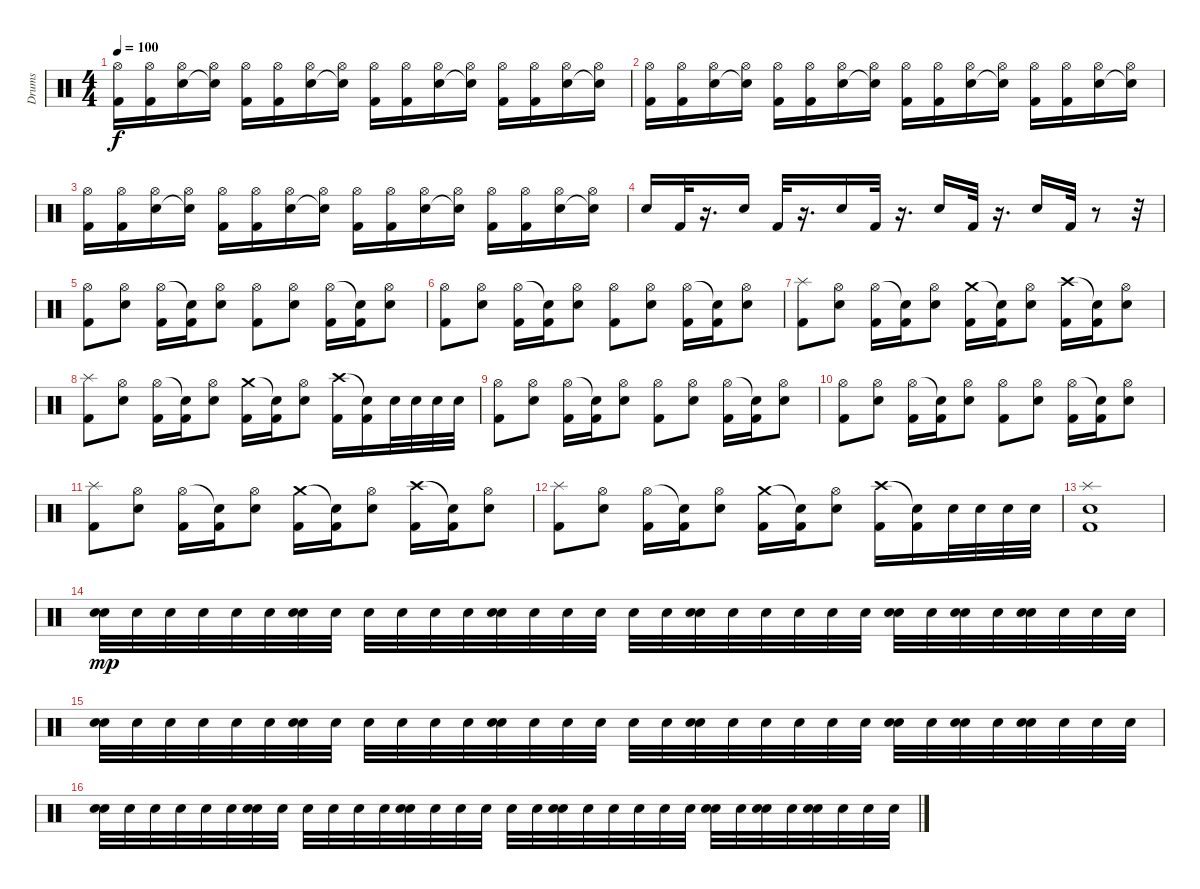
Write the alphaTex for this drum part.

\track ("Drums" "Drums") {instrument percussion}
\staff {score}
\articulation defaults
\ts (4 4)
\tempo 100
\clef neutral
\ks c
("Hi-Hat (open)" "Kick (hit) 2").16{dy f} ("Hi-Hat (open)" "Kick (hit) 2").16 ("Hi-Hat (open)" "Electric Snare (hit)").16 ("Hi-Hat (open)" "Snare (hit)"{t}).16 ("Hi-Hat (open)" "Kick (hit) 2").16 ("Hi-Hat (open)" "Kick (hit) 2").16 ("Hi-Hat (open)" "Electric Snare (hit)").16 ("Hi-Hat (open)" "Snare (hit)"{t}).16 ("Hi-Hat (open)" "Kick (hit) 2").16 ("Hi-Hat (open)" "Kick (hit) 2").16 ("Hi-Hat (open)" "Electric Snare (hit)").16 ("Hi-Hat (open)" "Snare (hit)"{t}).16 ("Hi-Hat (open)" "Kick (hit) 2").16 ("Hi-Hat (open)" "Kick (hit) 2").16 ("Hi-Hat (open)" "Electric Snare (hit)").16 ("Hi-Hat (open)" "Electric Snare (hit)"{t}).16 |
("Hi-Hat (open)" "Kick (hit) 2").16 ("Hi-Hat (open)" "Kick (hit) 2").16 ("Hi-Hat (open)" "Electric Snare (hit)").16 ("Hi-Hat (open)" "Snare (hit)"{t}).16 ("Hi-Hat (open)" "Kick (hit) 2").16 ("Hi-Hat (open)" "Kick (hit) 2").16 ("Hi-Hat (open)" "Electric Snare (hit)").16 ("Hi-Hat (open)" "Snare (hit)"{t}).16 ("Hi-Hat (open)" "Kick (hit) 2").16 ("Hi-Hat (open)" "Kick (hit) 2").16 ("Hi-Hat (open)" "Electric Snare (hit)").16 ("Hi-Hat (open)" "Snare (hit)"{t}).16 ("Hi-Hat (open)" "Kick (hit) 2").16 ("Hi-Hat (open)" "Kick (hit) 2").16 ("Hi-Hat (open)" "Electric Snare (hit)").16 ("Hi-Hat (open)" "Electric Snare (hit)"{t}).16 |
("Hi-Hat (open)" "Kick (hit) 2").16 ("Hi-Hat (open)" "Kick (hit) 2").16 ("Hi-Hat (open)" "Electric Snare (hit)").16 ("Hi-Hat (open)" "Snare (hit)"{t}).16 ("Hi-Hat (open)" "Kick (hit) 2").16 ("Hi-Hat (open)" "Kick (hit) 2").16 ("Hi-Hat (open)" "Electric Snare (hit)").16 ("Hi-Hat (open)" "Snare (hit)"{t}).16 ("Hi-Hat (open)" "Kick (hit) 2").16 ("Hi-Hat (open)" "Kick (hit) 2").16 ("Hi-Hat (open)" "Electric Snare (hit)").16 ("Hi-Hat (open)" "Snare (hit)"{t}).16 ("Hi-Hat (open)" "Kick (hit) 2").16 ("Hi-Hat (open)" "Kick (hit) 2").16 ("Hi-Hat (open)" "Electric Snare (hit)").16 ("Hi-Hat (open)" "Electric Snare (hit)"{t}).16 |
"Electric Snare (hit)".16 "Kick (hit) 2".32 r.16{d} "Electric Snare (hit)".16 "Kick (hit) 2".32 r.16{d} "Electric Snare (hit)".16 "Kick (hit) 2".32 r.16{d} "Electric Snare (hit)".16 "Kick (hit) 2".32 r.16{d} "Electric Snare (hit)".16 "Kick (hit) 2".32 r.8 r.32 |
("Hi-Hat (open)" "Kick (hit) 2").8 ("Hi-Hat (open)" "Electric Snare (hit)").8 ("Hi-Hat (open)" "Kick (hit) 2").16 ("Snare (hit)"{t} "Kick (hit) 2").16 ("Hi-Hat (open)" "Electric Snare (hit)").8 ("Hi-Hat (open)" "Kick (hit) 2").8 ("Hi-Hat (open)" "Electric Snare (hit)").8 ("Hi-Hat (open)" "Kick (hit) 2").16 ("Snare (hit)"{t} "Kick (hit) 2").16 ("Hi-Hat (open)" "Electric Snare (hit)").8 |
("Hi-Hat (open)" "Kick (hit) 2").8 ("Hi-Hat (open)" "Electric Snare (hit)").8 ("Hi-Hat (open)" "Kick (hit) 2").16 ("Snare (hit)"{t} "Kick (hit) 2").16 ("Hi-Hat (open)" "Electric Snare (hit)").8 ("Hi-Hat (open)" "Kick (hit) 2").8 ("Hi-Hat (open)" "Electric Snare (hit)").8 ("Hi-Hat (open)" "Kick (hit) 2").16 ("Snare (hit)"{t} "Kick (hit) 2").16 ("Hi-Hat (open)" "Electric Snare (hit)").8 |
("Splash (hit)" "Kick (hit) 2").8 ("Hi-Hat (open)" "Electric Snare (hit)").8 ("Hi-Hat (open)" "Kick (hit) 2").16 ("Snare (hit)"{t} "Kick (hit) 2").16 ("Hi-Hat (open)" "Electric Snare (hit)").8 ("Crash medium (hit)" "Kick (hit) 2").16 ("Snare (hit)"{t} "Kick (hit) 2").16 ("Hi-Hat (open)" "Electric Snare (hit)").8 ("Crash high (hit)" "Kick (hit) 2").16 ("Snare (hit)"{t} "Kick (hit) 2").16 ("Hi-Hat (open)" "Electric Snare (hit)").8 |
("Splash (hit)" "Kick (hit) 2").8 ("Hi-Hat (open)" "Electric Snare (hit)").8 ("Hi-Hat (open)" "Kick (hit) 2").16 ("Snare (hit)"{t} "Kick (hit) 2").16 ("Hi-Hat (open)" "Electric Snare (hit)").8 ("Crash medium (hit)" "Kick (hit) 2").16 ("Snare (hit)"{t} "Kick (hit) 2").16 ("Hi-Hat (open)" "Electric Snare (hit)").8 ("Crash high (hit)" "Kick (hit) 2").16 ("Snare (hit)"{t} "Kick (hit) 2").16 "Electric Snare (hit)".32 "Electric Snare (hit)".32 "Electric Snare (hit)".32 "Electric Snare (hit)".32 |
("Hi-Hat (open)" "Kick (hit) 2").8 ("Hi-Hat (open)" "Electric Snare (hit)").8 ("Hi-Hat (open)" "Kick (hit) 2").16 ("Snare (hit)"{t} "Kick (hit) 2").16 ("Hi-Hat (open)" "Electric Snare (hit)").8 ("Hi-Hat (open)" "Kick (hit) 2").8 ("Hi-Hat (open)" "Electric Snare (hit)").8 ("Hi-Hat (open)" "Kick (hit) 2").16 ("Snare (hit)"{t} "Kick (hit) 2").16 ("Hi-Hat (open)" "Electric Snare (hit)").8 |
("Hi-Hat (open)" "Kick (hit) 2").8 ("Hi-Hat (open)" "Electric Snare (hit)").8 ("Hi-Hat (open)" "Kick (hit) 2").16 ("Snare (hit)"{t} "Kick (hit) 2").16 ("Hi-Hat (open)" "Electric Snare (hit)").8 ("Hi-Hat (open)" "Kick (hit) 2").8 ("Hi-Hat (open)" "Electric Snare (hit)").8 ("Hi-Hat (open)" "Kick (hit) 2").16 ("Snare (hit)"{t} "Kick (hit) 2").16 ("Hi-Hat (open)" "Electric Snare (hit)").8 |
("Splash (hit)" "Kick (hit) 2").8 ("Hi-Hat (open)" "Electric Snare (hit)").8 ("Hi-Hat (open)" "Kick (hit) 2").16 ("Snare (hit)"{t} "Kick (hit) 2").16 ("Hi-Hat (open)" "Electric Snare (hit)").8 ("Crash medium (hit)" "Kick (hit) 2").16 ("Snare (hit)"{t} "Kick (hit) 2").16 ("Hi-Hat (open)" "Electric Snare (hit)").8 ("Crash high (hit)" "Kick (hit) 2").16 ("Snare (hit)"{t} "Kick (hit) 2").16 ("Hi-Hat (open)" "Electric Snare (hit)").8 |
("Splash (hit)" "Kick (hit) 2").8 ("Hi-Hat (open)" "Electric Snare (hit)").8 ("Hi-Hat (open)" "Kick (hit) 2").16 ("Snare (hit)"{t} "Kick (hit) 2").16 ("Hi-Hat (open)" "Electric Snare (hit)").8 ("Crash medium (hit)" "Kick (hit) 2").16 ("Snare (hit)"{t} "Kick (hit) 2").16 ("Hi-Hat (open)" "Electric Snare (hit)").8 ("Crash high (hit)" "Kick (hit) 2").16 ("Snare (hit)"{t} "Kick (hit) 2").16 "Electric Snare (hit)".32 "Electric Snare (hit)".32 "Electric Snare (hit)".32 "Electric Snare (hit)".32 |
("Splash (hit)" "Electric Snare (hit)" "Kick (hit) 2").1 |
("Electric Snare (hit)" "Electric Snare (hit)").32{dy mp} "Electric Snare (hit)".32 "Electric Snare (hit)".32 "Electric Snare (hit)".32 "Electric Snare (hit)".32 "Electric Snare (hit)".32 ("Electric Snare (hit)" "Electric Snare (hit)").32 "Electric Snare (hit)".32 "Electric Snare (hit)".32 "Electric Snare (hit)".32 "Electric Snare (hit)".32 "Electric Snare (hit)".32 ("Electric Snare (hit)" "Electric Snare (hit)").32 "Electric Snare (hit)".32 "Electric Snare (hit)".32 "Electric Snare (hit)".32 "Electric Snare (hit)".32 "Electric Snare (hit)".32 ("Electric Snare (hit)" "Electric Snare (hit)").32 "Electric Snare (hit)".32 "Electric Snare (hit)".32 "Electric Snare (hit)".32 "Electric Snare (hit)".32 "Electric Snare (hit)".32 ("Electric Snare (hit)" "Electric Snare (hit)").32 "Electric Snare (hit)".32 ("Electric Snare (hit)" "Electric Snare (hit)").32 "Electric Snare (hit)".32 ("Electric Snare (hit)" "Electric Snare (hit)").32 "Electric Snare (hit)".32 "Electric Snare (hit)".32 "Electric Snare (hit)".32 |
("Electric Snare (hit)" "Electric Snare (hit)").32 "Electric Snare (hit)".32 "Electric Snare (hit)".32 "Electric Snare (hit)".32 "Electric Snare (hit)".32 "Electric Snare (hit)".32 ("Electric Snare (hit)" "Electric Snare (hit)").32 "Electric Snare (hit)".32 "Electric Snare (hit)".32 "Electric Snare (hit)".32 "Electric Snare (hit)".32 "Electric Snare (hit)".32 ("Electric Snare (hit)" "Electric Snare (hit)").32 "Electric Snare (hit)".32 "Electric Snare (hit)".32 "Electric Snare (hit)".32 "Electric Snare (hit)".32 "Electric Snare (hit)".32 ("Electric Snare (hit)" "Electric Snare (hit)").32 "Electric Snare (hit)".32 "Electric Snare (hit)".32 "Electric Snare (hit)".32 "Electric Snare (hit)".32 "Electric Snare (hit)".32 ("Electric Snare (hit)" "Electric Snare (hit)").32 "Electric Snare (hit)".32 ("Electric Snare (hit)" "Electric Snare (hit)").32 "Electric Snare (hit)".32 ("Electric Snare (hit)" "Electric Snare (hit)").32 "Electric Snare (hit)".32 "Electric Snare (hit)".32 "Electric Snare (hit)".32 |
("Electric Snare (hit)" "Electric Snare (hit)").32 "Electric Snare (hit)".32 "Electric Snare (hit)".32 "Electric Snare (hit)".32 "Electric Snare (hit)".32 "Electric Snare (hit)".32 ("Electric Snare (hit)" "Electric Snare (hit)").32 "Electric Snare (hit)".32 "Electric Snare (hit)".32 "Electric Snare (hit)".32 "Electric Snare (hit)".32 "Electric Snare (hit)".32 ("Electric Snare (hit)" "Electric Snare (hit)").32 "Electric Snare (hit)".32 "Electric Snare (hit)".32 "Electric Snare (hit)".32 "Electric Snare (hit)".32 "Electric Snare (hit)".32 ("Electric Snare (hit)" "Electric Snare (hit)").32 "Electric Snare (hit)".32 "Electric Snare (hit)".32 "Electric Snare (hit)".32 "Electric Snare (hit)".32 "Electric Snare (hit)".32 ("Electric Snare (hit)" "Electric Snare (hit)").32 "Electric Snare (hit)".32 ("Electric Snare (hit)" "Electric Snare (hit)").32 "Electric Snare (hit)".32 ("Electric Snare (hit)" "Electric Snare (hit)").32 "Electric Snare (hit)".32 "Electric Snare (hit)".32 "Electric Snare (hit)".32
